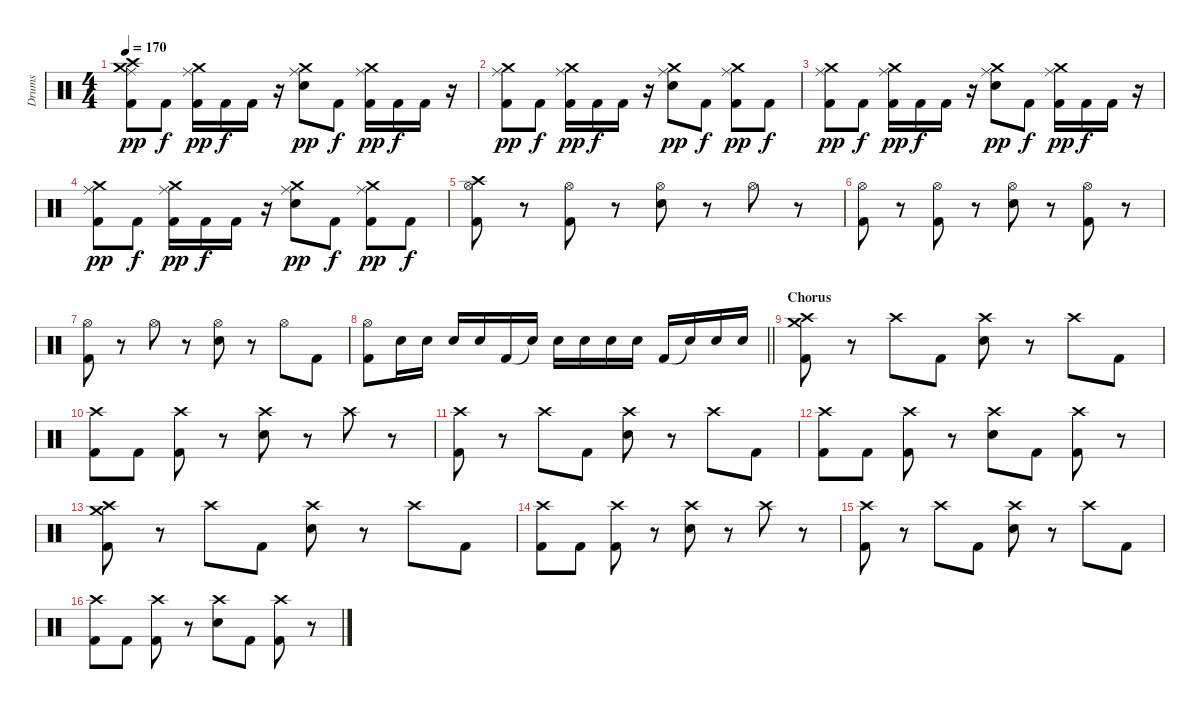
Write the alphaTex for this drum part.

\track ("Drums" "Drums") {instrument percussion}
\staff {score}
\articulation defaults
\ts (4 4)
\tempo 170
\clef neutral
\ks c
("Ride (middle)" "Kick (hit) 2" "Crash high (hit)" "Crash medium (hit)").8{dy pp} "Kick (hit) 2".8{dy f} ("Ride (middle)" "Kick (hit) 2" "Crash medium (hit)").16{dy pp} "Kick (hit) 2".16{dy f} "Kick (hit) 2".16 r.16 ("Ride (middle)" "Electric Snare (hit)" "Crash medium (hit)").8{dy pp} "Kick (hit) 2".8{dy f} ("Ride (middle)" "Kick (hit) 2" "Crash medium (hit)").16{dy pp} "Kick (hit) 2".16{dy f} "Kick (hit) 2".16 r.16 |
("Ride (middle)" "Kick (hit) 2" "Crash medium (hit)").8{dy pp} "Kick (hit) 2".8{dy f} ("Ride (middle)" "Kick (hit) 2" "Crash medium (hit)").16{dy pp} "Kick (hit) 2".16{dy f} "Kick (hit) 2".16 r.16 ("Ride (middle)" "Electric Snare (hit)" "Crash medium (hit)").8{dy pp} "Kick (hit) 2".8{dy f} ("Ride (middle)" "Kick (hit) 2" "Crash medium (hit)").8{dy pp} "Kick (hit) 2".8{dy f} |
("Ride (middle)" "Kick (hit) 2" "Crash medium (hit)").8{dy pp} "Kick (hit) 2".8{dy f} ("Ride (middle)" "Kick (hit) 2" "Crash medium (hit)").16{dy pp} "Kick (hit) 2".16{dy f} "Kick (hit) 2".16 r.16 ("Ride (middle)" "Electric Snare (hit)" "Crash medium (hit)").8{dy pp} "Kick (hit) 2".8{dy f} ("Ride (middle)" "Kick (hit) 2" "Crash medium (hit)").16{dy pp} "Kick (hit) 2".16{dy f} "Kick (hit) 2".16 r.16 |
("Ride (middle)" "Kick (hit) 2" "Crash medium (hit)").8{dy pp} "Kick (hit) 2".8{dy f} ("Ride (middle)" "Kick (hit) 2" "Crash medium (hit)").16{dy pp} "Kick (hit) 2".16{dy f} "Kick (hit) 2".16 r.16 ("Ride (middle)" "Electric Snare (hit)" "Crash medium (hit)").8{dy pp} "Kick (hit) 2".8{dy f} ("Ride (middle)" "Kick (hit) 2" "Crash medium (hit)").8{dy pp} "Kick (hit) 2".8{dy f} |
("Hi-Hat (open)" "Kick (hit) 2" "Crash high (hit)").8 r.8 ("Hi-Hat (open)" "Kick (hit) 2").8 r.8 ("Hi-Hat (open)" "Electric Snare (hit)").8 r.8 "Hi-Hat (open)".8 r.8 |
("Hi-Hat (open)" "Kick (hit) 2").8 r.8 ("Hi-Hat (open)" "Kick (hit) 2").8 r.8 ("Hi-Hat (open)" "Electric Snare (hit)").8 r.8 ("Hi-Hat (open)" "Kick (hit) 2").8 r.8 |
("Hi-Hat (open)" "Kick (hit) 2").8 r.8 "Hi-Hat (open)".8 r.8 ("Hi-Hat (open)" "Electric Snare (hit)").8 r.8 "Hi-Hat (open)".8 "Kick (hit) 2".8 |
\barLineRight lightlight
("Hi-Hat (open)" "Kick (hit) 2").8 "Electric Snare (hit)".16 "Electric Snare (hit)".16 "Electric Snare (hit)".16 "Electric Snare (hit)".16 "Kick (hit) 2".16 "Snare (hit)"{t}.16 "Electric Snare (hit)".16 "Electric Snare (hit)".16 "Electric Snare (hit)".16 "Electric Snare (hit)".16 "Kick (hit) 2".16 "Snare (hit)"{t}.16 "Electric Snare (hit)".16 "Electric Snare (hit)".16 |
\section ("" "Chorus")
("Crash high (hit)" "Kick (hit) 2" "Crash medium (hit)").8 r.8 "Crash high (hit)".8 "Kick (hit) 2".8 ("Crash high (hit)" "Electric Snare (hit)").8 r.8 "Crash high (hit)".8 "Kick (hit) 2".8 |
("Crash high (hit)" "Kick (hit) 2").8 "Kick (hit) 2".8 ("Crash high (hit)" "Kick (hit) 2").8 r.8 ("Crash high (hit)" "Electric Snare (hit)").8 r.8 "Crash high (hit)".8 r.8 |
("Crash high (hit)" "Kick (hit) 2").8 r.8 "Crash high (hit)".8 "Kick (hit) 2".8 ("Crash high (hit)" "Electric Snare (hit)").8 r.8 "Crash high (hit)".8 "Kick (hit) 2".8 |
("Crash high (hit)" "Kick (hit) 2").8 "Kick (hit) 2".8 ("Crash high (hit)" "Kick (hit) 2").8 r.8 ("Crash high (hit)" "Electric Snare (hit)").8 "Kick (hit) 2".8 ("Crash high (hit)" "Kick (hit) 2").8 r.8 |
("Crash high (hit)" "Kick (hit) 2" "Crash medium (hit)").8 r.8 "Crash high (hit)".8 "Kick (hit) 2".8 ("Crash high (hit)" "Electric Snare (hit)").8 r.8 "Crash high (hit)".8 "Kick (hit) 2".8 |
("Crash high (hit)" "Kick (hit) 2").8 "Kick (hit) 2".8 ("Crash high (hit)" "Kick (hit) 2").8 r.8 ("Crash high (hit)" "Electric Snare (hit)").8 r.8 "Crash high (hit)".8 r.8 |
("Crash high (hit)" "Kick (hit) 2").8 r.8 "Crash high (hit)".8 "Kick (hit) 2".8 ("Crash high (hit)" "Electric Snare (hit)").8 r.8 "Crash high (hit)".8 "Kick (hit) 2".8 |
("Crash high (hit)" "Kick (hit) 2").8 "Kick (hit) 2".8 ("Crash high (hit)" "Kick (hit) 2").8 r.8 ("Crash high (hit)" "Electric Snare (hit)").8 "Kick (hit) 2".8 ("Crash high (hit)" "Kick (hit) 2").8 r.8
